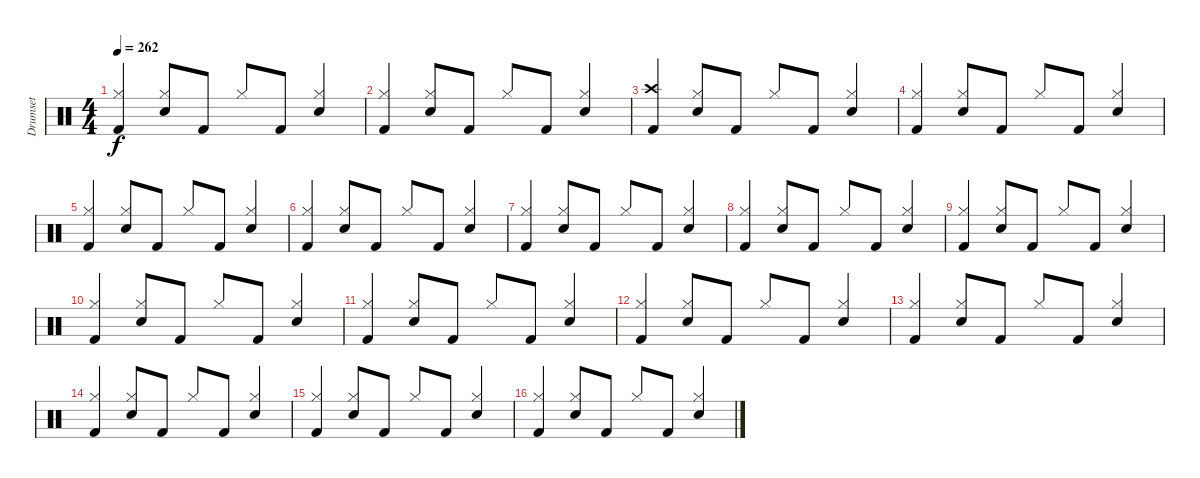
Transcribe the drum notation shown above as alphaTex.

\track ("Drumset" "Drumset") {instrument percussion}
\staff {score}
\articulation defaults
\ts (4 4)
\tempo 262
\clef neutral
\ks c
("Hi-Hat (closed)" "Kick (hit) 2").4{dy f beam Up} ("Hi-Hat (closed)" "Snare (hit) 2").8{beam Up} "Kick (hit) 2".8{beam Up} "Hi-Hat (closed)".8{beam Up} "Kick (hit) 2".8{beam Up} ("Snare (hit) 2" "Hi-Hat (closed)").4{beam Up} |
("Hi-Hat (closed)" "Kick (hit) 2").4{beam Up} ("Hi-Hat (closed)" "Snare (hit) 2").8{beam Up} "Kick (hit) 2".8{beam Up} "Hi-Hat (closed)".8{beam Up} "Kick (hit) 2".8{beam Up} ("Snare (hit) 2" "Hi-Hat (closed)").4{beam Up} |
("Crash high (hit)" "Kick (hit) 2").4{beam Up} ("Snare (hit) 2" "Hi-Hat (closed)").8{beam Up} "Kick (hit) 2".8{beam Up} "Hi-Hat (closed)".8{beam Up} "Kick (hit) 2".8{beam Up} ("Snare (hit) 2" "Hi-Hat (closed)").4{beam Up} |
("Hi-Hat (closed)" "Kick (hit) 2").4{beam Up} ("Hi-Hat (closed)" "Snare (hit) 2").8{beam Up} "Kick (hit) 2".8{beam Up} "Hi-Hat (closed)".8{beam Up} "Kick (hit) 2".8{beam Up} ("Snare (hit) 2" "Hi-Hat (closed)").4{beam Up} |
("Hi-Hat (closed)" "Kick (hit) 2").4{beam Up} ("Hi-Hat (closed)" "Snare (hit) 2").8{beam Up} "Kick (hit) 2".8{beam Up} "Hi-Hat (closed)".8{beam Up} "Kick (hit) 2".8{beam Up} ("Snare (hit) 2" "Hi-Hat (closed)").4{beam Up} |
("Hi-Hat (closed)" "Kick (hit) 2").4{beam Up} ("Hi-Hat (closed)" "Snare (hit) 2").8{beam Up} "Kick (hit) 2".8{beam Up} "Hi-Hat (closed)".8{beam Up} "Kick (hit) 2".8{beam Up} ("Snare (hit) 2" "Hi-Hat (closed)").4{beam Up} |
("Hi-Hat (closed)" "Kick (hit) 2").4{beam Up} ("Hi-Hat (closed)" "Snare (hit) 2").8{beam Up} "Kick (hit) 2".8{beam Up} "Hi-Hat (closed)".8{beam Up} "Kick (hit) 2".8{beam Up} ("Snare (hit) 2" "Hi-Hat (closed)").4{beam Up} |
("Hi-Hat (closed)" "Kick (hit) 2").4{beam Up} ("Hi-Hat (closed)" "Snare (hit) 2").8{beam Up} "Kick (hit) 2".8{beam Up} "Hi-Hat (closed)".8{beam Up} "Kick (hit) 2".8{beam Up} ("Snare (hit) 2" "Hi-Hat (closed)").4{beam Up} |
("Hi-Hat (closed)" "Kick (hit) 2").4{beam Up} ("Hi-Hat (closed)" "Snare (hit) 2").8{beam Up} "Kick (hit) 2".8{beam Up} "Hi-Hat (closed)".8{beam Up} "Kick (hit) 2".8{beam Up} ("Snare (hit) 2" "Hi-Hat (closed)").4{beam Up} |
("Hi-Hat (closed)" "Kick (hit) 2").4{beam Up} ("Hi-Hat (closed)" "Snare (hit) 2").8{beam Up} "Kick (hit) 2".8{beam Up} "Hi-Hat (closed)".8{beam Up} "Kick (hit) 2".8{beam Up} ("Snare (hit) 2" "Hi-Hat (closed)").4{beam Up} |
("Hi-Hat (closed)" "Kick (hit) 2").4{beam Up} ("Hi-Hat (closed)" "Snare (hit) 2").8{beam Up} "Kick (hit) 2".8{beam Up} "Hi-Hat (closed)".8{beam Up} "Kick (hit) 2".8{beam Up} ("Snare (hit) 2" "Hi-Hat (closed)").4{beam Up} |
("Hi-Hat (closed)" "Kick (hit) 2").4{beam Up} ("Hi-Hat (closed)" "Snare (hit) 2").8{beam Up} "Kick (hit) 2".8{beam Up} "Hi-Hat (closed)".8{beam Up} "Kick (hit) 2".8{beam Up} ("Snare (hit) 2" "Hi-Hat (closed)").4{beam Up} |
("Hi-Hat (closed)" "Kick (hit) 2").4{beam Up} ("Hi-Hat (closed)" "Snare (hit) 2").8{beam Up} "Kick (hit) 2".8{beam Up} "Hi-Hat (closed)".8{beam Up} "Kick (hit) 2".8{beam Up} ("Snare (hit) 2" "Hi-Hat (closed)").4{beam Up} |
("Hi-Hat (closed)" "Kick (hit) 2").4{beam Up} ("Hi-Hat (closed)" "Snare (hit) 2").8{beam Up} "Kick (hit) 2".8{beam Up} "Hi-Hat (closed)".8{beam Up} "Kick (hit) 2".8{beam Up} ("Snare (hit) 2" "Hi-Hat (closed)").4{beam Up} |
("Hi-Hat (closed)" "Kick (hit) 2").4{beam Up} ("Hi-Hat (closed)" "Snare (hit) 2").8{beam Up} "Kick (hit) 2".8{beam Up} "Hi-Hat (closed)".8{beam Up} "Kick (hit) 2".8{beam Up} ("Snare (hit) 2" "Hi-Hat (closed)").4{beam Up} |
("Hi-Hat (closed)" "Kick (hit) 2").4{beam Up} ("Hi-Hat (closed)" "Snare (hit) 2").8{beam Up} "Kick (hit) 2".8{beam Up} "Hi-Hat (closed)".8{beam Up} "Kick (hit) 2".8{beam Up} ("Snare (hit) 2" "Hi-Hat (closed)").4{beam Up}
